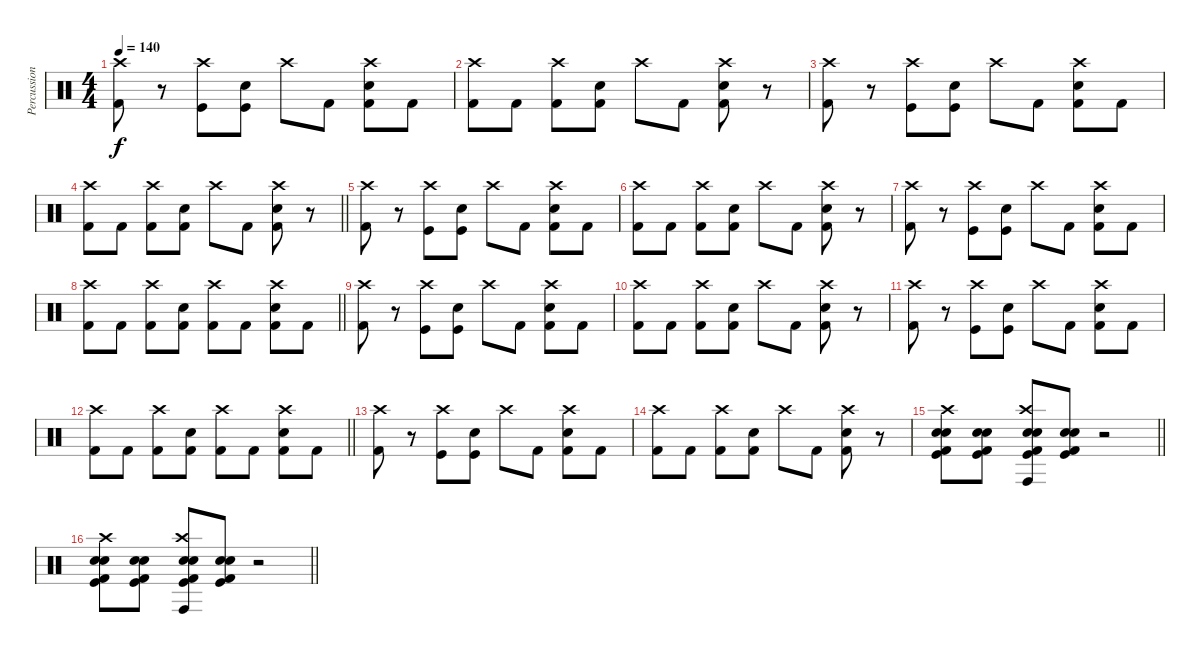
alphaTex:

\track ("Percussion" "Percussion") {instrument percussion}
\staff {score}
\articulation defaults
\ts (4 4)
\tempo 140
\clef neutral
\ks c
("Crash high (hit)" "Kick (hit) 2").8{dy f} r.8 ("Crash high (hit)" "Kick (hit)").8 ("Electric Snare (hit)" "Kick (hit)").8 "Crash high (hit)".8 "Kick (hit) 2".8 ("Crash high (hit)" "Electric Snare (hit)" "Kick (hit) 2").8 "Kick (hit) 2".8 |
("Crash high (hit)" "Kick (hit) 2").8 "Kick (hit) 2".8 ("Crash high (hit)" "Kick (hit) 2").8 ("Electric Snare (hit)" "Kick (hit) 2").8 "Crash high (hit)".8 "Kick (hit) 2".8 ("Crash high (hit)" "Electric Snare (hit)" "Kick (hit) 2").8 r.8 |
("Crash high (hit)" "Kick (hit) 2").8 r.8 ("Crash high (hit)" "Kick (hit)").8 ("Electric Snare (hit)" "Kick (hit)").8 "Crash high (hit)".8 "Kick (hit) 2".8 ("Crash high (hit)" "Electric Snare (hit)" "Kick (hit) 2").8 "Kick (hit) 2".8 |
\barLineRight lightlight
("Crash high (hit)" "Kick (hit) 2").8 "Kick (hit) 2".8 ("Crash high (hit)" "Kick (hit) 2").8 ("Electric Snare (hit)" "Kick (hit) 2").8 "Crash high (hit)".8 "Kick (hit) 2".8 ("Crash high (hit)" "Electric Snare (hit)" "Kick (hit) 2").8 r.8 |
("Crash high (hit)" "Kick (hit) 2").8 r.8 ("Crash high (hit)" "Kick (hit)").8 ("Electric Snare (hit)" "Kick (hit)").8 "Crash high (hit)".8 "Kick (hit) 2".8 ("Crash high (hit)" "Electric Snare (hit)" "Kick (hit) 2").8 "Kick (hit) 2".8 |
("Crash high (hit)" "Kick (hit) 2").8 "Kick (hit) 2".8 ("Crash high (hit)" "Kick (hit) 2").8 ("Electric Snare (hit)" "Kick (hit) 2").8 "Crash high (hit)".8 "Kick (hit) 2".8 ("Crash high (hit)" "Electric Snare (hit)" "Kick (hit) 2").8 r.8 |
("Crash high (hit)" "Kick (hit) 2").8 r.8 ("Crash high (hit)" "Kick (hit)").8 ("Electric Snare (hit)" "Kick (hit)").8 "Crash high (hit)".8 "Kick (hit) 2".8 ("Crash high (hit)" "Electric Snare (hit)" "Kick (hit) 2").8 "Kick (hit) 2".8 |
\barLineRight lightlight
("Crash high (hit)" "Kick (hit) 2").8 "Kick (hit) 2".8 ("Crash high (hit)" "Kick (hit) 2").8 ("Electric Snare (hit)" "Kick (hit) 2").8 ("Crash high (hit)" "Kick (hit) 2").8 "Kick (hit) 2".8 ("Crash high (hit)" "Electric Snare (hit)" "Kick (hit) 2").8 "Kick (hit) 2".8 |
("Crash high (hit)" "Kick (hit) 2").8 r.8 ("Crash high (hit)" "Kick (hit)").8 ("Electric Snare (hit)" "Kick (hit)").8 "Crash high (hit)".8 "Kick (hit) 2".8 ("Crash high (hit)" "Electric Snare (hit)" "Kick (hit) 2").8 "Kick (hit) 2".8 |
("Crash high (hit)" "Kick (hit) 2").8 "Kick (hit) 2".8 ("Crash high (hit)" "Kick (hit) 2").8 ("Electric Snare (hit)" "Kick (hit) 2").8 "Crash high (hit)".8 "Kick (hit) 2".8 ("Crash high (hit)" "Electric Snare (hit)" "Kick (hit) 2").8 r.8 |
("Crash high (hit)" "Kick (hit) 2").8 r.8 ("Crash high (hit)" "Kick (hit)").8 ("Electric Snare (hit)" "Kick (hit)").8 "Crash high (hit)".8 "Kick (hit) 2".8 ("Crash high (hit)" "Electric Snare (hit)" "Kick (hit) 2").8 "Kick (hit) 2".8 |
\barLineRight lightlight
("Crash high (hit)" "Kick (hit) 2").8 "Kick (hit) 2".8 ("Crash high (hit)" "Kick (hit) 2").8 ("Electric Snare (hit)" "Kick (hit) 2").8 ("Crash high (hit)" "Kick (hit) 2").8 "Kick (hit) 2".8 ("Crash high (hit)" "Electric Snare (hit)" "Kick (hit) 2").8 "Kick (hit) 2".8 |
("Crash high (hit)" "Kick (hit) 2").8 r.8 ("Crash high (hit)" "Kick (hit)").8 ("Electric Snare (hit)" "Kick (hit)").8 "Crash high (hit)".8 "Kick (hit) 2".8 ("Crash high (hit)" "Electric Snare (hit)" "Kick (hit) 2").8 "Kick (hit) 2".8 |
("Crash high (hit)" "Kick (hit) 2").8 "Kick (hit) 2".8 ("Crash high (hit)" "Kick (hit) 2").8 ("Electric Snare (hit)" "Kick (hit) 2").8 "Crash high (hit)".8 "Kick (hit) 2".8 ("Crash high (hit)" "Electric Snare (hit)" "Kick (hit) 2").8 r.8 |
\barLineRight lightlight
("Crash high (hit)" "Kick (hit) 2" "Electric Snare (hit)" "Electric Snare (hit)" "Kick (hit)").8 ("Kick (hit) 2" "Electric Snare (hit)" "Electric Snare (hit)" "Kick (hit)").8 ("Crash high (hit)" "Kick (hit) 2" "Conga high (hit)" "Electric Snare (hit)" "Electric Snare (hit)" "Kick (hit)").8 ("Kick (hit) 2" "Electric Snare (hit)" "Electric Snare (hit)" "Kick (hit)").8 r.2 |
\barLineRight lightlight
("Crash high (hit)" "Kick (hit) 2" "Electric Snare (hit)" "Electric Snare (hit)" "Kick (hit)").8 ("Kick (hit) 2" "Electric Snare (hit)" "Electric Snare (hit)" "Kick (hit)").8 ("Crash high (hit)" "Kick (hit) 2" "Conga high (hit)" "Electric Snare (hit)" "Electric Snare (hit)" "Kick (hit)").8 ("Kick (hit) 2" "Electric Snare (hit)" "Electric Snare (hit)" "Kick (hit)").8 r.2
